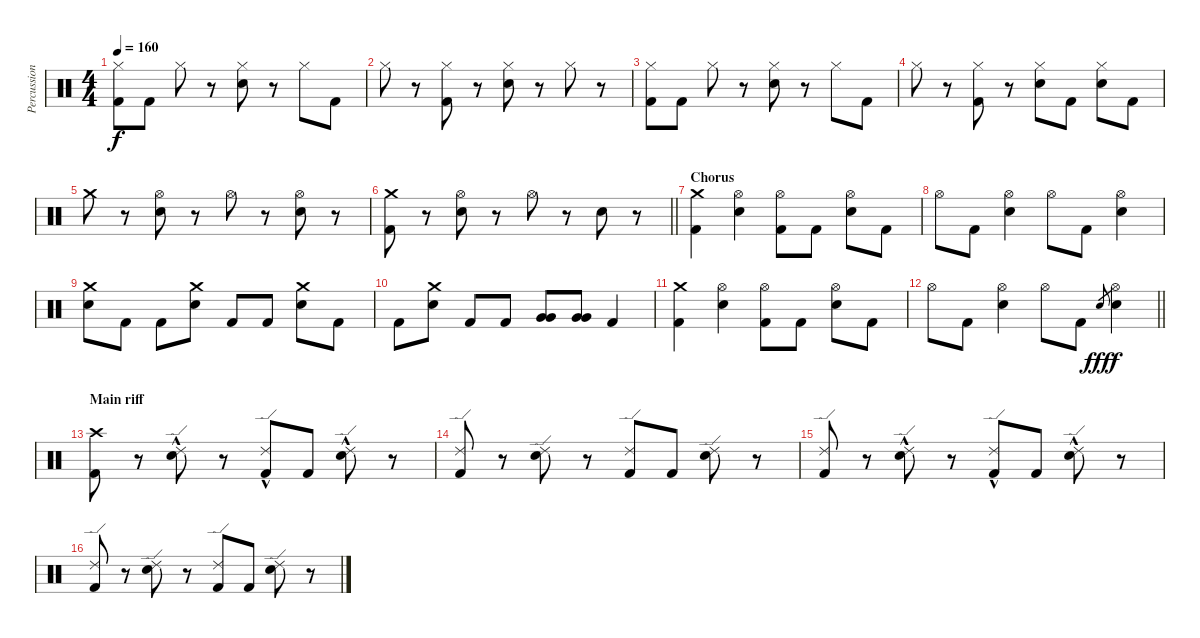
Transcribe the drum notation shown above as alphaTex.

\track ("Percussion" "Percussion") {instrument percussion}
\staff {score}
\articulation defaults
\ts (4 4)
\tempo 160
\clef neutral
\ks c
("Hi-Hat (closed)" "Kick (hit) 2").8{dy f} "Kick (hit) 2".8 "Hi-Hat (closed)".8 r.8 ("Hi-Hat (closed)" "Electric Snare (hit)").8 r.8 "Hi-Hat (closed)".8 "Kick (hit) 2".8 |
"Hi-Hat (closed)".8 r.8 ("Hi-Hat (closed)" "Kick (hit) 2").8 r.8 ("Hi-Hat (closed)" "Electric Snare (hit)").8 r.8 "Hi-Hat (closed)".8 r.8 |
("Hi-Hat (closed)" "Kick (hit) 2").8 "Kick (hit) 2".8 "Hi-Hat (closed)".8 r.8 ("Hi-Hat (closed)" "Electric Snare (hit)").8 r.8 "Hi-Hat (closed)".8 "Kick (hit) 2".8 |
"Hi-Hat (closed)".8 r.8 ("Hi-Hat (closed)" "Kick (hit) 2").8 r.8 ("Hi-Hat (closed)" "Electric Snare (hit)").8 "Kick (hit) 2".8 ("Hi-Hat (closed)" "Electric Snare (hit)").8 "Kick (hit) 2".8 |
"Crash medium (hit)".8 r.8 ("Hi-Hat (open)" "Electric Snare (hit)").8 r.8 "Hi-Hat (open)".8 r.8 ("Hi-Hat (open)" "Electric Snare (hit)").8 r.8 |
\barLineRight lightlight
("Crash medium (hit)" "Kick (hit) 2").8 r.8 ("Hi-Hat (open)" "Electric Snare (hit)").8 r.8 "Hi-Hat (open)".8 r.8 "Electric Snare (hit)".8 r.8 |
\section ("" "Chorus")
("Crash medium (hit)" "Kick (hit) 2").4 ("Hi-Hat (open)" "Electric Snare (hit)").4 ("Hi-Hat (open)" "Kick (hit) 2").8 "Kick (hit) 2".8 ("Hi-Hat (open)" "Electric Snare (hit)").8 "Kick (hit) 2".8 |
"Hi-Hat (open)".8 "Kick (hit) 2".8 ("Hi-Hat (open)" "Electric Snare (hit)").4 "Hi-Hat (open)".8 "Kick (hit) 2".8 ("Hi-Hat (open)" "Electric Snare (hit)").4 |
("Crash medium (hit)" "Electric Snare (hit)").8 "Kick (hit) 2".8 "Kick (hit) 2".8 ("Crash medium (hit)" "Electric Snare (hit)").8 "Kick (hit) 2".8 "Kick (hit) 2".8 ("Crash medium (hit)" "Electric Snare (hit)").8 "Kick (hit) 2".8 |
"Kick (hit) 2".8 ("Crash medium (hit)" "Electric Snare (hit)").8 "Kick (hit) 2".8 "Kick (hit) 2".8 ("Very Low Tom (hit)" "Very Low Tom (hit)").8 ("Very Low Tom (hit)" "Very Low Tom (hit)").8 "Kick (hit) 2".4 |
("Crash medium (hit)" "Kick (hit) 2").4 ("Hi-Hat (open)" "Electric Snare (hit)").4 ("Hi-Hat (open)" "Kick (hit) 2").8 "Kick (hit) 2".8 ("Hi-Hat (open)" "Electric Snare (hit)").8 "Kick (hit) 2".8 |
\barLineRight lightlight "Hi-Hat (open)".8 "Kick (hit) 2".8
("Hi-Hat (open)" "Electric Snare (hit)").4 "Hi-Hat (open)".8 "Kick (hit) 2".8 "Electric Snare (hit)".8{gr dy fff} ("Hi-Hat (open)" "Electric Snare (hit)").4{dy f} |
\section ("" "Main riff")
("Crash high (hit)" "Kick (hit) 2").8 r.8 ("Ride (edge) 2"{hac} "Electric Snare (hit)").8 r.8 ("Ride (edge) 2"{hac} "Kick (hit) 2").8 "Kick (hit) 2".8 ("Ride (edge) 2"{hac} "Electric Snare (hit)").8 r.8 |
("Ride (edge) 2" "Kick (hit) 2").8 r.8 ("Ride (edge) 2" "Electric Snare (hit)").8 r.8 ("Ride (edge) 2" "Kick (hit) 2").8 "Kick (hit) 2".8 ("Ride (edge) 2" "Electric Snare (hit)").8 r.8 |
("Ride (edge) 2" "Kick (hit) 2").8 r.8 ("Ride (edge) 2"{hac} "Electric Snare (hit)").8 r.8 ("Ride (edge) 2"{hac} "Kick (hit) 2").8 "Kick (hit) 2".8 ("Ride (edge) 2"{hac} "Electric Snare (hit)").8 r.8 |
("Ride (edge) 2" "Kick (hit) 2").8 r.8 ("Ride (edge) 2" "Electric Snare (hit)").8 r.8 ("Ride (edge) 2" "Kick (hit) 2").8 "Kick (hit) 2".8 ("Ride (edge) 2" "Electric Snare (hit)").8 r.8
